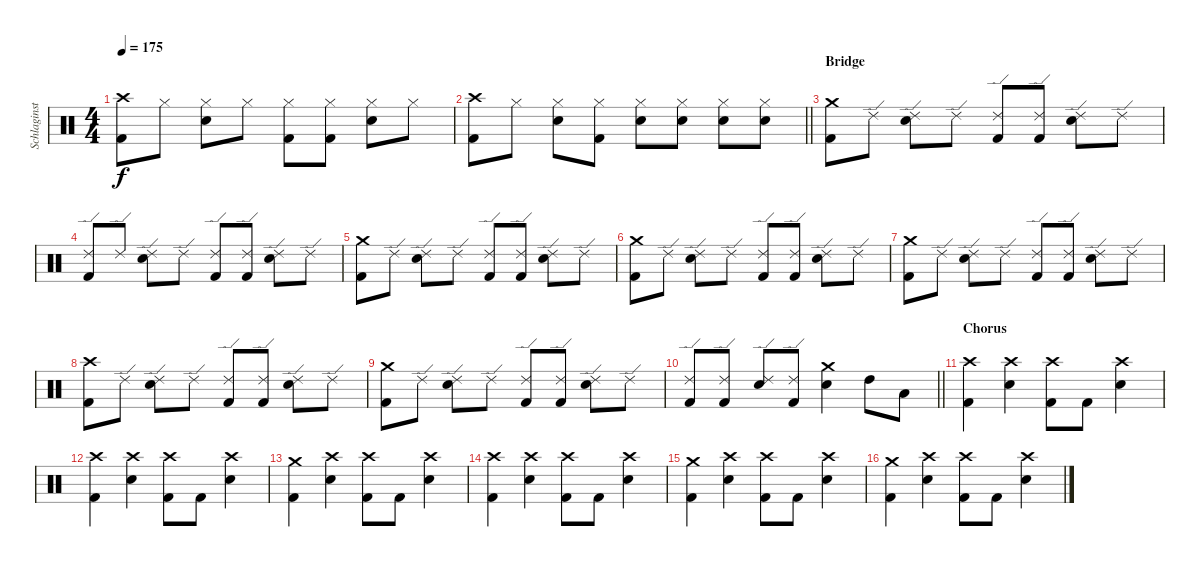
\track ("Schlaginstrumente - Auswahl" "Schlaginst") {instrument percussion}
\staff {score}
\articulation defaults
\ts (4 4)
\tempo 175
\clef neutral
\ks c
("Crash high (hit)" "Kick (hit) 2").8{dy f} "Hi-Hat (closed)".8 ("Hi-Hat (closed)" "Snare (hit) 2").8 "Hi-Hat (closed)".8 ("Hi-Hat (closed)" "Kick (hit) 2").8 ("Hi-Hat (closed)" "Kick (hit) 2").8 ("Hi-Hat (closed)" "Snare (hit) 2").8 "Hi-Hat (closed)".8 |
\barLineRight lightlight
("Crash high (hit)" "Kick (hit) 2").8 "Hi-Hat (closed)".8 ("Hi-Hat (closed)" "Snare (hit) 2").8 ("Hi-Hat (closed)" "Kick (hit) 2").8 ("Hi-Hat (closed)" "Snare (hit) 2").8 ("Hi-Hat (closed)" "Snare (hit) 2").8 ("Hi-Hat (closed)" "Snare (hit) 2").8 ("Hi-Hat (closed)" "Snare (hit) 2").8 |
\section ("" "Bridge")
("Crash medium (hit)" "Kick (hit) 2").8 "Ride (edge) 2".8 ("Ride (edge) 2" "Snare (hit) 2").8 "Ride (edge) 2".8 ("Ride (edge) 2" "Kick (hit) 2").8 ("Ride (edge) 2" "Kick (hit) 2").8 ("Ride (edge) 2" "Snare (hit) 2").8 "Ride (edge) 2".8 |
("Ride (edge) 2" "Kick (hit) 2").8 "Ride (edge) 2".8 ("Ride (edge) 2" "Snare (hit) 2").8 "Ride (edge) 2".8 ("Ride (edge) 2" "Kick (hit) 2").8 ("Ride (edge) 2" "Kick (hit) 2").8 ("Ride (edge) 2" "Snare (hit) 2").8 "Ride (edge) 2".8 |
("Crash medium (hit)" "Kick (hit) 2").8 "Ride (edge) 2".8 ("Ride (edge) 2" "Snare (hit) 2").8 "Ride (edge) 2".8 ("Ride (edge) 2" "Kick (hit) 2").8 ("Ride (edge) 2" "Kick (hit) 2").8 ("Ride (edge) 2" "Snare (hit) 2").8 "Ride (edge) 2".8 |
("Crash medium (hit)" "Kick (hit) 2").8 "Ride (edge) 2".8 ("Ride (edge) 2" "Snare (hit) 2").8 "Ride (edge) 2".8 ("Ride (edge) 2" "Kick (hit) 2").8 ("Ride (edge) 2" "Kick (hit) 2").8 ("Ride (edge) 2" "Snare (hit) 2").8 "Ride (edge) 2".8 |
("Crash medium (hit)" "Kick (hit) 2").8 "Ride (edge) 2".8 ("Ride (edge) 2" "Snare (hit) 2").8 "Ride (edge) 2".8 ("Ride (edge) 2" "Kick (hit) 2").8 ("Ride (edge) 2" "Kick (hit) 2").8 ("Ride (edge) 2" "Snare (hit) 2").8 "Ride (edge) 2".8 |
("Crash high (hit)" "Kick (hit) 2").8 "Ride (edge) 2".8 ("Ride (edge) 2" "Snare (hit) 2").8 "Ride (edge) 2".8 ("Ride (edge) 2" "Kick (hit) 2").8 ("Ride (edge) 2" "Kick (hit) 2").8 ("Ride (edge) 2" "Snare (hit) 2").8 "Ride (edge) 2".8 |
("Crash medium (hit)" "Kick (hit) 2").8 "Ride (edge) 2".8 ("Ride (edge) 2" "Snare (hit) 2").8 "Ride (edge) 2".8 ("Ride (edge) 2" "Kick (hit) 2").8 ("Ride (edge) 2" "Kick (hit) 2").8 ("Ride (edge) 2" "Snare (hit) 2").8 "Ride (edge) 2".8 |
\barLineRight lightlight
("Ride (edge) 2" "Kick (hit) 2").8 ("Ride (edge) 2" "Kick (hit) 2").8 ("Ride (edge) 2" "Snare (hit) 2").8 ("Ride (edge) 2" "Kick (hit) 2").8 ("Crash medium (hit)" "Snare (hit) 2").4 "High Tom (hit)".8 "Low Tom (hit)".8 |
\section ("" "Chorus")
("Crash high (hit)" "Kick (hit) 2").4 ("Crash high (hit)" "Snare (hit) 2").4 ("Crash high (hit)" "Kick (hit) 2").8 "Kick (hit) 2".8 ("Crash high (hit)" "Snare (hit) 2").4 |
("Crash high (hit)" "Kick (hit) 2").4 ("Crash high (hit)" "Snare (hit) 2").4 ("Crash high (hit)" "Kick (hit) 2").8 "Kick (hit) 2".8 ("Crash high (hit)" "Snare (hit) 2").4 |
("Crash medium (hit)" "Kick (hit) 2").4 ("Crash high (hit)" "Snare (hit) 2").4 ("Crash high (hit)" "Kick (hit) 2").8 "Kick (hit) 2".8 ("Crash high (hit)" "Snare (hit) 2").4 |
("Crash high (hit)" "Kick (hit) 2").4 ("Crash high (hit)" "Snare (hit) 2").4 ("Crash high (hit)" "Kick (hit) 2").8 "Kick (hit) 2".8 ("Crash high (hit)" "Snare (hit) 2").4 |
("Crash medium (hit)" "Kick (hit) 2").4 ("Crash high (hit)" "Snare (hit) 2").4 ("Crash high (hit)" "Kick (hit) 2").8 "Kick (hit) 2".8 ("Crash high (hit)" "Snare (hit) 2").4 |
("Crash medium (hit)" "Kick (hit) 2").4 ("Crash high (hit)" "Snare (hit) 2").4 ("Crash high (hit)" "Kick (hit) 2").8 "Kick (hit) 2".8 ("Crash high (hit)" "Snare (hit) 2").4
